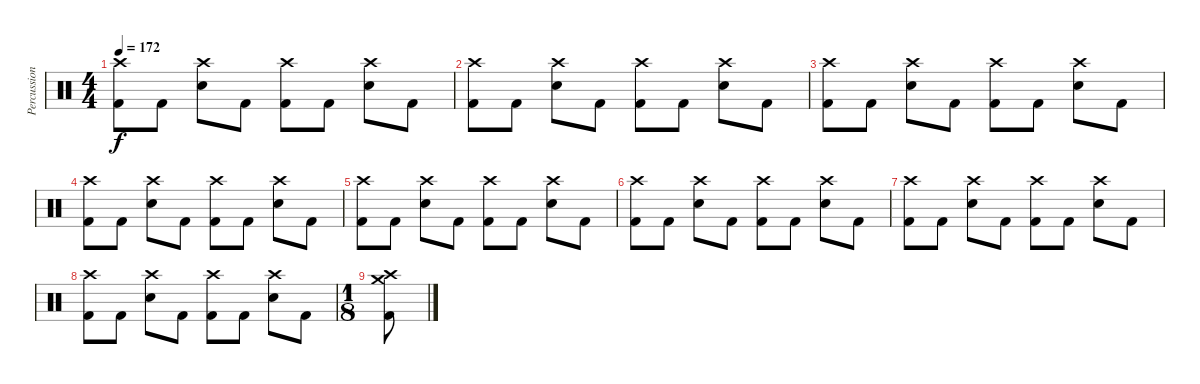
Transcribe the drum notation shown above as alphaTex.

\track ("Percussion" "Percussion") {instrument percussion}
\staff {score}
\articulation defaults
\ts (4 4)
\tempo 172
\clef neutral
\ks c
("Crash high (hit)" "Kick (hit) 2").8{dy f} "Kick (hit) 2".8 ("Crash high (hit)" "Electric Snare (hit)").8 "Kick (hit) 2".8 ("Crash high (hit)" "Kick (hit) 2").8 "Kick (hit) 2".8 ("Crash high (hit)" "Electric Snare (hit)").8 "Kick (hit) 2".8 |
("Crash high (hit)" "Kick (hit) 2").8 "Kick (hit) 2".8 ("Crash high (hit)" "Electric Snare (hit)").8 "Kick (hit) 2".8 ("Crash high (hit)" "Kick (hit) 2").8 "Kick (hit) 2".8 ("Crash high (hit)" "Electric Snare (hit)").8 "Kick (hit) 2".8 |
("Crash high (hit)" "Kick (hit) 2").8 "Kick (hit) 2".8 ("Crash high (hit)" "Electric Snare (hit)").8 "Kick (hit) 2".8 ("Crash high (hit)" "Kick (hit) 2").8 "Kick (hit) 2".8 ("Crash high (hit)" "Electric Snare (hit)").8 "Kick (hit) 2".8 |
("Crash high (hit)" "Kick (hit) 2").8 "Kick (hit) 2".8 ("Crash high (hit)" "Electric Snare (hit)").8 "Kick (hit) 2".8 ("Crash high (hit)" "Kick (hit) 2").8 "Kick (hit) 2".8 ("Crash high (hit)" "Electric Snare (hit)").8 "Kick (hit) 2".8 |
("Crash high (hit)" "Kick (hit) 2").8 "Kick (hit) 2".8 ("Crash high (hit)" "Electric Snare (hit)").8 "Kick (hit) 2".8 ("Crash high (hit)" "Kick (hit) 2").8 "Kick (hit) 2".8 ("Crash high (hit)" "Electric Snare (hit)").8 "Kick (hit) 2".8 |
("Crash high (hit)" "Kick (hit) 2").8 "Kick (hit) 2".8 ("Crash high (hit)" "Electric Snare (hit)").8 "Kick (hit) 2".8 ("Crash high (hit)" "Kick (hit) 2").8 "Kick (hit) 2".8 ("Crash high (hit)" "Electric Snare (hit)").8 "Kick (hit) 2".8 |
("Crash high (hit)" "Kick (hit) 2").8 "Kick (hit) 2".8 ("Crash high (hit)" "Electric Snare (hit)").8 "Kick (hit) 2".8 ("Crash high (hit)" "Kick (hit) 2").8 "Kick (hit) 2".8 ("Crash high (hit)" "Electric Snare (hit)").8 "Kick (hit) 2".8 |
("Crash high (hit)" "Kick (hit) 2").8 "Kick (hit) 2".8 ("Crash high (hit)" "Electric Snare (hit)").8 "Kick (hit) 2".8 ("Crash high (hit)" "Kick (hit) 2").8 "Kick (hit) 2".8 ("Crash high (hit)" "Electric Snare (hit)").8 "Kick (hit) 2".8 |
\ts (1 8)
("Crash high (hit)" "Crash medium (hit)" "Kick (hit) 2").8
